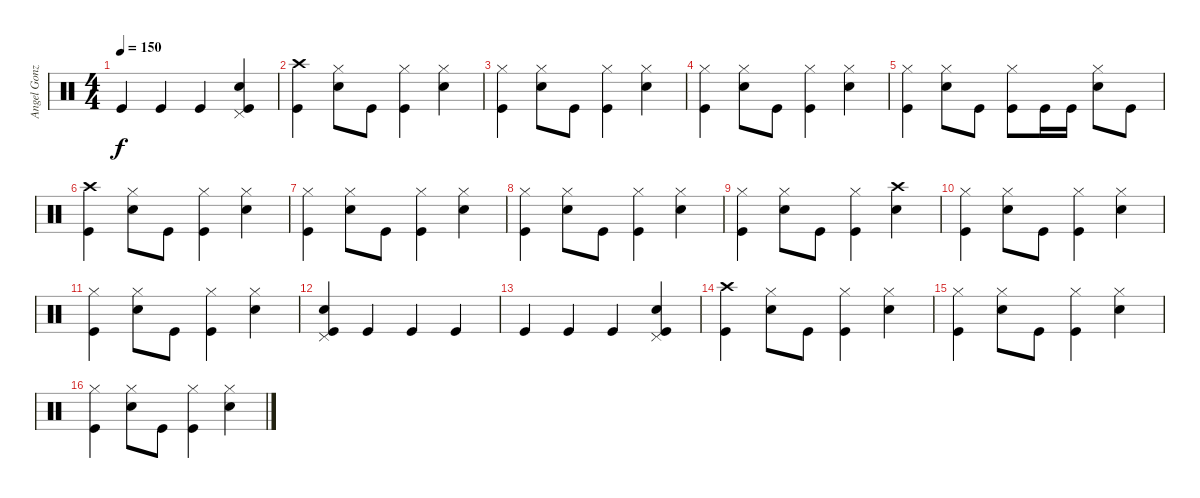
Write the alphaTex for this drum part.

\track ("Angel González - Batería" "Angel Gonz") {instrument percussion}
\staff {score}
\articulation defaults
\ts (4 4)
\tempo 150
\clef neutral
\ks c "Kick (hit)".4{dy f} "Kick (hit)".4 "Kick (hit)".4
("Electric Snare (hit)" "Pedal Hi-Hat (hit)" "Kick (hit)").4 |
("Crash high (hit)" "Kick (hit)").4 ("Hi-Hat (closed)" "Electric Snare (hit)").8 "Kick (hit)".8 ("Hi-Hat (closed)" "Kick (hit)").4 ("Hi-Hat (closed)" "Electric Snare (hit)").4 |
("Hi-Hat (closed)" "Kick (hit)").4 ("Hi-Hat (closed)" "Electric Snare (hit)").8 "Kick (hit)".8 ("Hi-Hat (closed)" "Kick (hit)").4 ("Hi-Hat (closed)" "Electric Snare (hit)").4 |
("Hi-Hat (closed)" "Kick (hit)").4 ("Hi-Hat (closed)" "Electric Snare (hit)").8 "Kick (hit)".8 ("Hi-Hat (closed)" "Kick (hit)").4 ("Hi-Hat (closed)" "Electric Snare (hit)").4 |
("Hi-Hat (closed)" "Kick (hit)").4 ("Hi-Hat (closed)" "Electric Snare (hit)").8 "Kick (hit)".8 ("Hi-Hat (closed)" "Kick (hit)").8 "Kick (hit)".16 "Kick (hit)".16 ("Hi-Hat (closed)" "Electric Snare (hit)").8 "Kick (hit)".8 |
("Crash high (hit)" "Kick (hit)").4 ("Hi-Hat (closed)" "Electric Snare (hit)").8 "Kick (hit)".8 ("Hi-Hat (closed)" "Kick (hit)").4 ("Hi-Hat (closed)" "Electric Snare (hit)").4 |
("Hi-Hat (closed)" "Kick (hit)").4 ("Hi-Hat (closed)" "Electric Snare (hit)").8 "Kick (hit)".8 ("Hi-Hat (closed)" "Kick (hit)").4 ("Hi-Hat (closed)" "Electric Snare (hit)").4 |
("Hi-Hat (closed)" "Kick (hit)").4 ("Hi-Hat (closed)" "Electric Snare (hit)").8 "Kick (hit)".8 ("Hi-Hat (closed)" "Kick (hit)").4 ("Hi-Hat (closed)" "Electric Snare (hit)").4 |
("Hi-Hat (closed)" "Kick (hit)").4 ("Hi-Hat (closed)" "Electric Snare (hit)").8 "Kick (hit)".8 ("Hi-Hat (closed)" "Kick (hit)").4 ("Crash high (hit)" "Electric Snare (hit)").4 |
("Hi-Hat (closed)" "Kick (hit)").4 ("Hi-Hat (closed)" "Electric Snare (hit)").8 "Kick (hit)".8 ("Hi-Hat (closed)" "Kick (hit)").4 ("Hi-Hat (closed)" "Electric Snare (hit)").4 |
("Hi-Hat (closed)" "Kick (hit)").4 ("Hi-Hat (closed)" "Electric Snare (hit)").8 "Kick (hit)".8 ("Hi-Hat (closed)" "Kick (hit)").4 ("Hi-Hat (closed)" "Electric Snare (hit)").4 |
("Electric Snare (hit)" "Pedal Hi-Hat (hit)" "Kick (hit)").4 "Kick (hit)".4 "Kick (hit)".4 "Kick (hit)".4 |
"Kick (hit)".4 "Kick (hit)".4 "Kick (hit)".4 ("Electric Snare (hit)" "Pedal Hi-Hat (hit)" "Kick (hit)").4 |
("Crash high (hit)" "Kick (hit)").4 ("Hi-Hat (closed)" "Electric Snare (hit)").8 "Kick (hit)".8 ("Hi-Hat (closed)" "Kick (hit)").4 ("Hi-Hat (closed)" "Electric Snare (hit)").4 |
("Hi-Hat (closed)" "Kick (hit)").4 ("Hi-Hat (closed)" "Electric Snare (hit)").8 "Kick (hit)".8 ("Hi-Hat (closed)" "Kick (hit)").4 ("Hi-Hat (closed)" "Electric Snare (hit)").4 |
("Hi-Hat (closed)" "Kick (hit)").4 ("Hi-Hat (closed)" "Electric Snare (hit)").8 "Kick (hit)".8 ("Hi-Hat (closed)" "Kick (hit)").4 ("Hi-Hat (closed)" "Electric Snare (hit)").4
